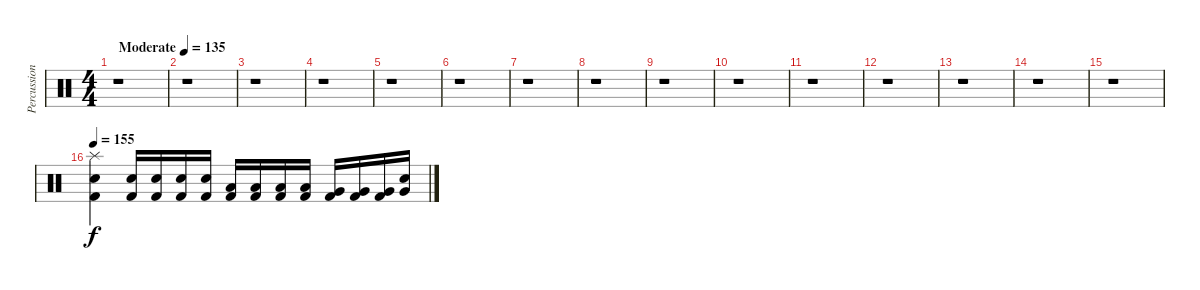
\track ("Percussions" "Percussion") {instrument percussion}
\staff {score}
\articulation defaults
\ts (4 4)
\tempo (135 "Moderate")
\clef neutral
\ks c
r.1{dy f} |
r.1 |
r.1 |
r.1 |
r.1 |
r.1 |
r.1 |
r.1 |
r.1 |
r.1 |
r.1 |
r.1 |
r.1 |
r.1 |
r.1 |
\tempo 155
("Splash (hit)" "Snare (hit) 2" "Kick (hit) 2").4 ("Snare (hit) 2" "Kick (hit) 2").16 ("Snare (hit) 2" "Kick (hit) 2").16 ("Snare (hit) 2" "Kick (hit) 2").16 ("Snare (hit) 2" "Kick (hit) 2").16 ("Low Tom (hit)" "Kick (hit) 2").16 ("Low Tom (hit)" "Kick (hit) 2").16 ("Low Tom (hit)" "Kick (hit) 2").16 ("Low Tom (hit)" "Kick (hit) 2").16 ("Very Low Tom (hit)" "Kick (hit) 2").16 ("Very Low Tom (hit)" "Kick (hit) 2").16 ("Very Low Tom (hit)" "Kick (hit) 2").16 ("Very Low Tom (hit)" "Snare (hit)").16
